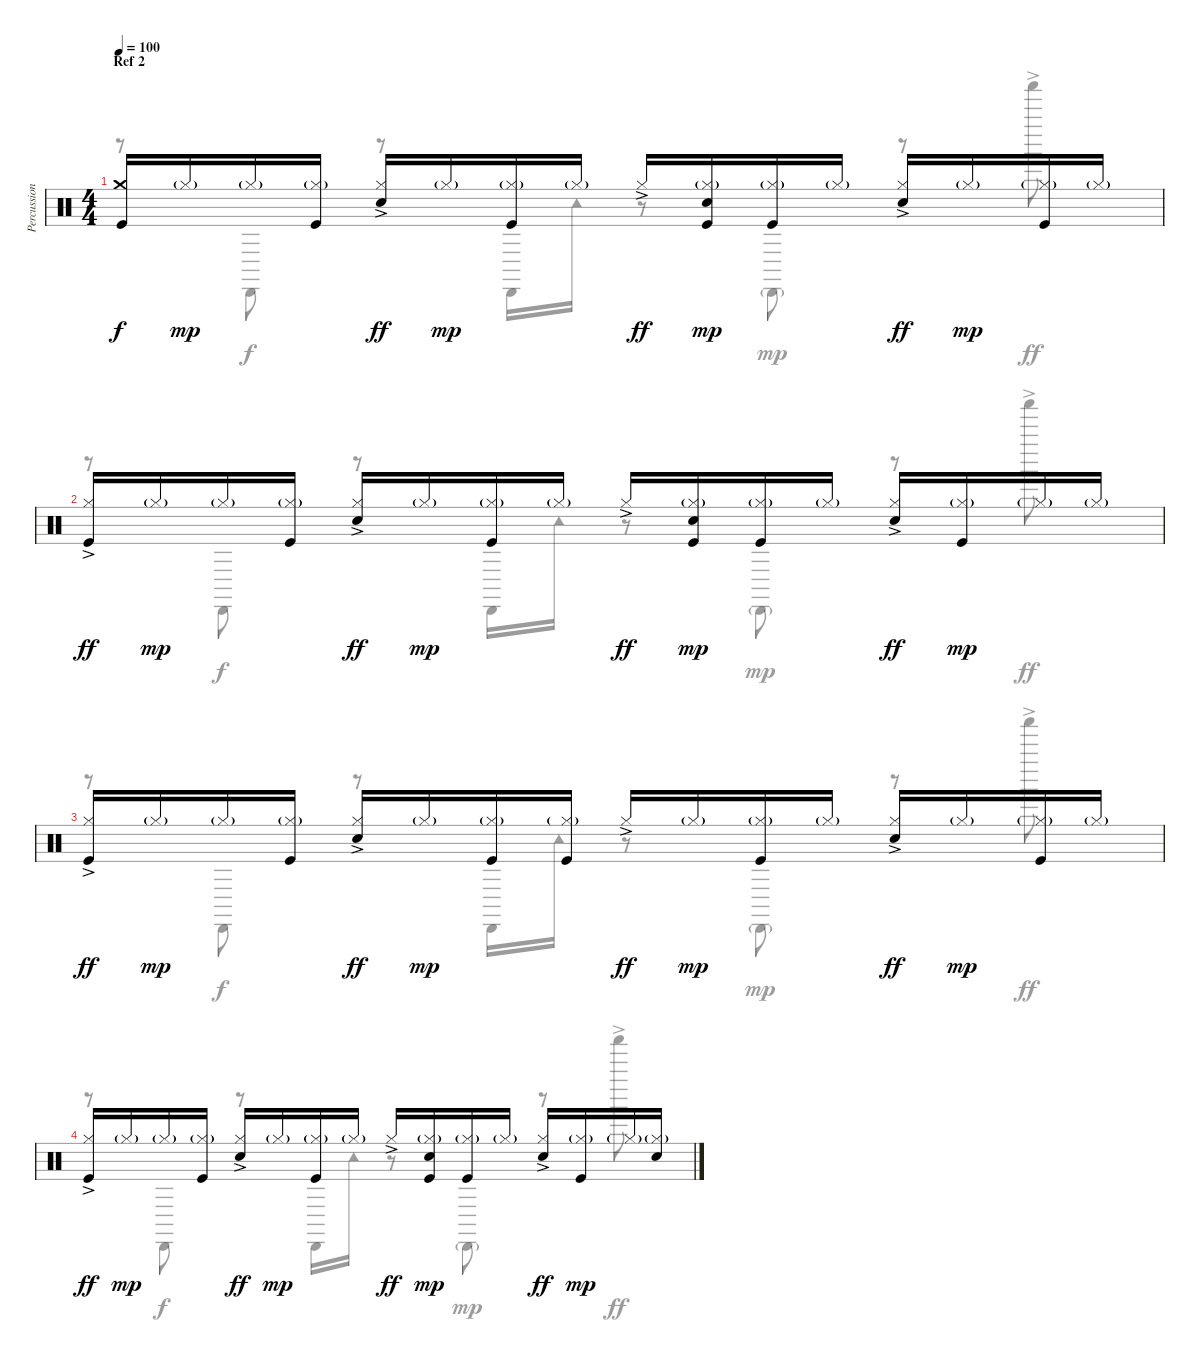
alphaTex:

\track ("Percussions" "Percussion") {instrument percussion}
\staff {score}
\articulation defaults
\voice
\ts (4 4)
\section ("" "Ref 2")
\tempo 100
\clef neutral
\ks c
("Kick (hit)" "Crash medium (hit)").16{dy f} "Hi-Hat (closed)"{g}.16{dy mp} "Hi-Hat (closed)"{g}.16 ("Kick (hit)" "Hi-Hat (closed)"{g}).16 ("Electric Snare (hit)" "Hi-Hat (closed)"{ac}).16{dy ff} "Hi-Hat (closed)"{g}.16{dy mp} ("Kick (hit)" "Hi-Hat (closed)"{g}).16 "Hi-Hat (closed)"{g}.16 "Hi-Hat (closed)"{ac}.16{dy ff} ("Kick (hit)" "Electric Snare (hit)" "Hi-Hat (closed)"{g}).16{dy mp} ("Kick (hit)" "Hi-Hat (closed)"{g}).16 "Hi-Hat (closed)"{g}.16 ("Snare (hit) 2" "Hi-Hat (closed)"{ac}).16{dy ff} "Hi-Hat (closed)"{g}.16{dy mp} ("Kick (hit)" "Hi-Hat (closed)"{g}).16 "Hi-Hat (closed)"{g}.16 |
("Kick (hit)" "Hi-Hat (closed)"{ac}).16{dy ff} "Hi-Hat (closed)"{g}.16{dy mp} "Hi-Hat (closed)"{g}.16 ("Kick (hit)" "Hi-Hat (closed)"{g}).16 ("Electric Snare (hit)" "Hi-Hat (closed)"{ac}).16{dy ff} "Hi-Hat (closed)"{g}.16{dy mp} ("Kick (hit)" "Hi-Hat (closed)"{g}).16 "Hi-Hat (closed)"{g}.16 "Hi-Hat (closed)"{ac}.16{dy ff} ("Kick (hit)" "Electric Snare (hit)" "Hi-Hat (closed)"{g}).16{dy mp} ("Kick (hit)" "Hi-Hat (closed)"{g}).16 "Hi-Hat (closed)"{g}.16 ("Snare (hit) 2" "Hi-Hat (closed)"{ac}).16{dy ff} ("Kick (hit)" "Hi-Hat (closed)"{g}).16{dy mp} "Hi-Hat (closed)"{g}.16 "Hi-Hat (closed)"{g}.16 |
("Kick (hit)" "Hi-Hat (closed)"{ac}).16{dy ff} "Hi-Hat (closed)"{g}.16{dy mp} "Hi-Hat (closed)"{g}.16 ("Kick (hit)" "Hi-Hat (closed)"{g}).16 ("Electric Snare (hit)" "Hi-Hat (closed)"{ac}).16{dy ff} "Hi-Hat (closed)"{g}.16{dy mp} ("Kick (hit)" "Hi-Hat (closed)"{g}).16 ("Kick (hit)" "Hi-Hat (closed)"{g}).16 "Hi-Hat (closed)"{ac}.16{dy ff} "Hi-Hat (closed)"{g}.16{dy mp} ("Kick (hit)" "Hi-Hat (closed)"{g}).16 "Hi-Hat (closed)"{g}.16 ("Snare (hit) 2" "Hi-Hat (closed)"{ac}).16{dy ff} "Hi-Hat (closed)"{g}.16{dy mp} ("Kick (hit)" "Hi-Hat (closed)"{g}).16 "Hi-Hat (closed)"{g}.16 |
("Kick (hit)" "Hi-Hat (closed)"{ac}).16{dy ff} "Hi-Hat (closed)"{g}.16{dy mp} "Hi-Hat (closed)"{g}.16 ("Kick (hit)" "Hi-Hat (closed)"{g}).16 ("Electric Snare (hit)" "Hi-Hat (closed)"{ac}).16{dy ff} "Hi-Hat (closed)"{g}.16{dy mp} ("Kick (hit)" "Hi-Hat (closed)"{g}).16 "Hi-Hat (closed)"{g}.16 "Hi-Hat (closed)"{ac}.16{dy ff} ("Kick (hit)" "Electric Snare (hit)" "Hi-Hat (closed)"{g}).16{dy mp} ("Kick (hit)" "Hi-Hat (closed)"{g}).16 "Hi-Hat (closed)"{g}.16 ("Snare (hit) 2" "Hi-Hat (closed)"{ac}).16{dy ff} ("Kick (hit)" "Hi-Hat (closed)"{g}).16{dy mp} "Hi-Hat (closed)"{g}.16 ("Snare (hit) 2" "Hi-Hat (closed)"{g}).16
\voice
\clef neutral
\ottava regular
\simile none
\ks c
r.8{dy ff} "Cabasa (hit)".8{dy f} r.8 "Cabasa (hit)".16 "Tambourine (hit)".16 r.8 "Cabasa (hit)"{g}.8{dy mp} r.8 "Shaker (hit)"{ac}.8{dy ff} |
r.8 "Cabasa (hit)".8{dy f} r.8 "Cabasa (hit)".16 "Tambourine (hit)".16 r.8 "Cabasa (hit)"{g}.8{dy mp} r.8 "Shaker (hit)"{ac}.8{dy ff} |
r.8 "Cabasa (hit)".8{dy f} r.8 "Cabasa (hit)".16 "Tambourine (hit)".16 r.8 "Cabasa (hit)"{g}.8{dy mp} r.8 "Shaker (hit)"{ac}.8{dy ff} |
r.8 "Cabasa (hit)".8{dy f} r.8 "Cabasa (hit)".16 "Tambourine (hit)".16 r.8 "Cabasa (hit)"{g}.8{dy mp} r.8 "Shaker (hit)"{ac}.8{dy ff}
